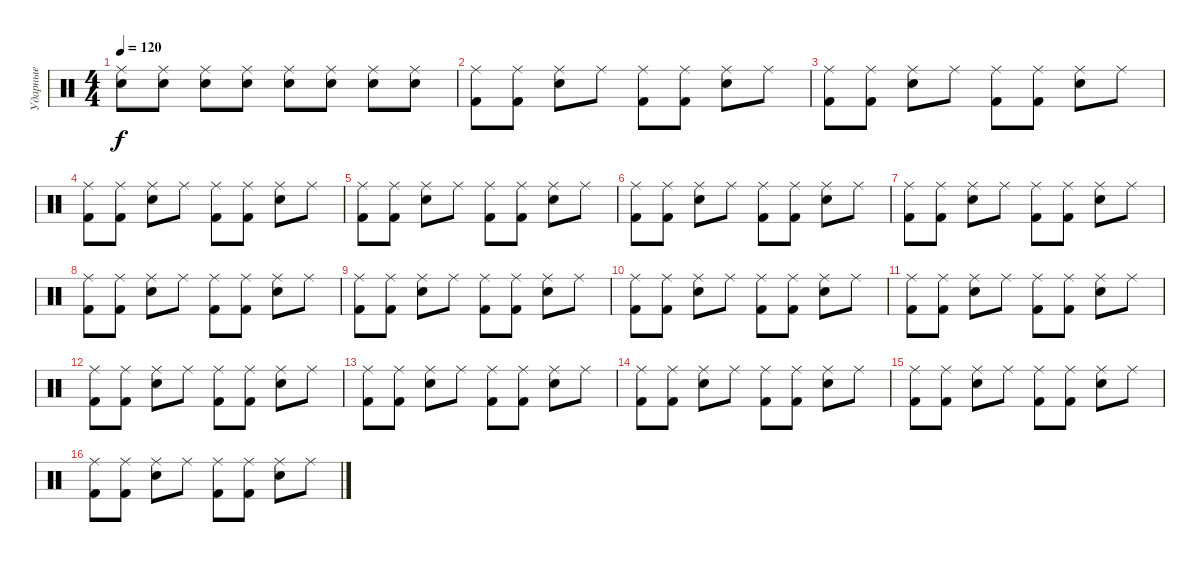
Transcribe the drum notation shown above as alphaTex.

\track ("Ударные" "Ударные") {instrument percussion}
\staff {score}
\articulation defaults
\ts (4 4)
\tempo 120
\clef neutral
\ks c
("Ride (middle)" "Snare (hit) 2").8{dy f} ("Ride (middle)" "Snare (hit) 2").8 ("Ride (middle)" "Snare (hit) 2").8 ("Ride (middle)" "Snare (hit) 2").8 ("Ride (middle)" "Snare (hit) 2").8 ("Ride (middle)" "Snare (hit) 2").8 ("Ride (middle)" "Snare (hit) 2").8 ("Ride (middle)" "Snare (hit) 2").8 |
("Ride (middle)" "Kick (hit) 2").8 ("Ride (middle)" "Kick (hit) 2").8 ("Ride (middle)" "Snare (hit) 2").8 "Ride (middle)".8 ("Ride (middle)" "Kick (hit) 2").8 ("Ride (middle)" "Kick (hit) 2").8 ("Ride (middle)" "Snare (hit) 2").8 "Ride (middle)".8 |
("Ride (middle)" "Kick (hit) 2").8 ("Ride (middle)" "Kick (hit) 2").8 ("Ride (middle)" "Snare (hit) 2").8 "Ride (middle)".8 ("Ride (middle)" "Kick (hit) 2").8 ("Ride (middle)" "Kick (hit) 2").8 ("Ride (middle)" "Snare (hit) 2").8 "Ride (middle)".8 |
("Ride (middle)" "Kick (hit) 2").8 ("Ride (middle)" "Kick (hit) 2").8 ("Ride (middle)" "Snare (hit) 2").8 "Ride (middle)".8 ("Ride (middle)" "Kick (hit) 2").8 ("Ride (middle)" "Kick (hit) 2").8 ("Ride (middle)" "Snare (hit) 2").8 "Ride (middle)".8 |
("Ride (middle)" "Kick (hit) 2").8 ("Ride (middle)" "Kick (hit) 2").8 ("Ride (middle)" "Snare (hit) 2").8 "Ride (middle)".8 ("Ride (middle)" "Kick (hit) 2").8 ("Ride (middle)" "Kick (hit) 2").8 ("Ride (middle)" "Snare (hit) 2").8 "Ride (middle)".8 |
("Ride (middle)" "Kick (hit) 2").8 ("Ride (middle)" "Kick (hit) 2").8 ("Ride (middle)" "Snare (hit) 2").8 "Ride (middle)".8 ("Ride (middle)" "Kick (hit) 2").8 ("Ride (middle)" "Kick (hit) 2").8 ("Ride (middle)" "Snare (hit) 2").8 "Ride (middle)".8 |
("Ride (middle)" "Kick (hit) 2").8 ("Ride (middle)" "Kick (hit) 2").8 ("Ride (middle)" "Snare (hit) 2").8 "Ride (middle)".8 ("Ride (middle)" "Kick (hit) 2").8 ("Ride (middle)" "Kick (hit) 2").8 ("Ride (middle)" "Snare (hit) 2").8 "Ride (middle)".8 |
("Ride (middle)" "Kick (hit) 2").8 ("Ride (middle)" "Kick (hit) 2").8 ("Ride (middle)" "Snare (hit) 2").8 "Ride (middle)".8 ("Ride (middle)" "Kick (hit) 2").8 ("Ride (middle)" "Kick (hit) 2").8 ("Ride (middle)" "Snare (hit) 2").8 "Ride (middle)".8 |
("Ride (middle)" "Kick (hit) 2").8 ("Ride (middle)" "Kick (hit) 2").8 ("Ride (middle)" "Snare (hit) 2").8 "Ride (middle)".8 ("Ride (middle)" "Kick (hit) 2").8 ("Ride (middle)" "Kick (hit) 2").8 ("Ride (middle)" "Snare (hit) 2").8 "Ride (middle)".8 |
("Ride (middle)" "Kick (hit) 2").8 ("Ride (middle)" "Kick (hit) 2").8 ("Ride (middle)" "Snare (hit) 2").8 "Ride (middle)".8 ("Ride (middle)" "Kick (hit) 2").8 ("Ride (middle)" "Kick (hit) 2").8 ("Ride (middle)" "Snare (hit) 2").8 "Ride (middle)".8 |
("Ride (middle)" "Kick (hit) 2").8 ("Ride (middle)" "Kick (hit) 2").8 ("Ride (middle)" "Snare (hit) 2").8 "Ride (middle)".8 ("Ride (middle)" "Kick (hit) 2").8 ("Ride (middle)" "Kick (hit) 2").8 ("Ride (middle)" "Snare (hit) 2").8 "Ride (middle)".8 |
("Ride (middle)" "Kick (hit) 2").8 ("Ride (middle)" "Kick (hit) 2").8 ("Ride (middle)" "Snare (hit) 2").8 "Ride (middle)".8 ("Ride (middle)" "Kick (hit) 2").8 ("Ride (middle)" "Kick (hit) 2").8 ("Ride (middle)" "Snare (hit) 2").8 "Ride (middle)".8 |
("Ride (middle)" "Kick (hit) 2").8 ("Ride (middle)" "Kick (hit) 2").8 ("Ride (middle)" "Snare (hit) 2").8 "Ride (middle)".8 ("Ride (middle)" "Kick (hit) 2").8 ("Ride (middle)" "Kick (hit) 2").8 ("Ride (middle)" "Snare (hit) 2").8 "Ride (middle)".8 |
("Ride (middle)" "Kick (hit) 2").8 ("Ride (middle)" "Kick (hit) 2").8 ("Ride (middle)" "Snare (hit) 2").8 "Ride (middle)".8 ("Ride (middle)" "Kick (hit) 2").8 ("Ride (middle)" "Kick (hit) 2").8 ("Ride (middle)" "Snare (hit) 2").8 "Ride (middle)".8 |
("Ride (middle)" "Kick (hit) 2").8 ("Ride (middle)" "Kick (hit) 2").8 ("Ride (middle)" "Snare (hit) 2").8 "Ride (middle)".8 ("Ride (middle)" "Kick (hit) 2").8 ("Ride (middle)" "Kick (hit) 2").8 ("Ride (middle)" "Snare (hit) 2").8 "Ride (middle)".8 |
("Ride (middle)" "Kick (hit) 2").8 ("Ride (middle)" "Kick (hit) 2").8 ("Ride (middle)" "Snare (hit) 2").8 "Ride (middle)".8 ("Ride (middle)" "Kick (hit) 2").8 ("Ride (middle)" "Kick (hit) 2").8 ("Ride (middle)" "Snare (hit) 2").8 "Ride (middle)".8
